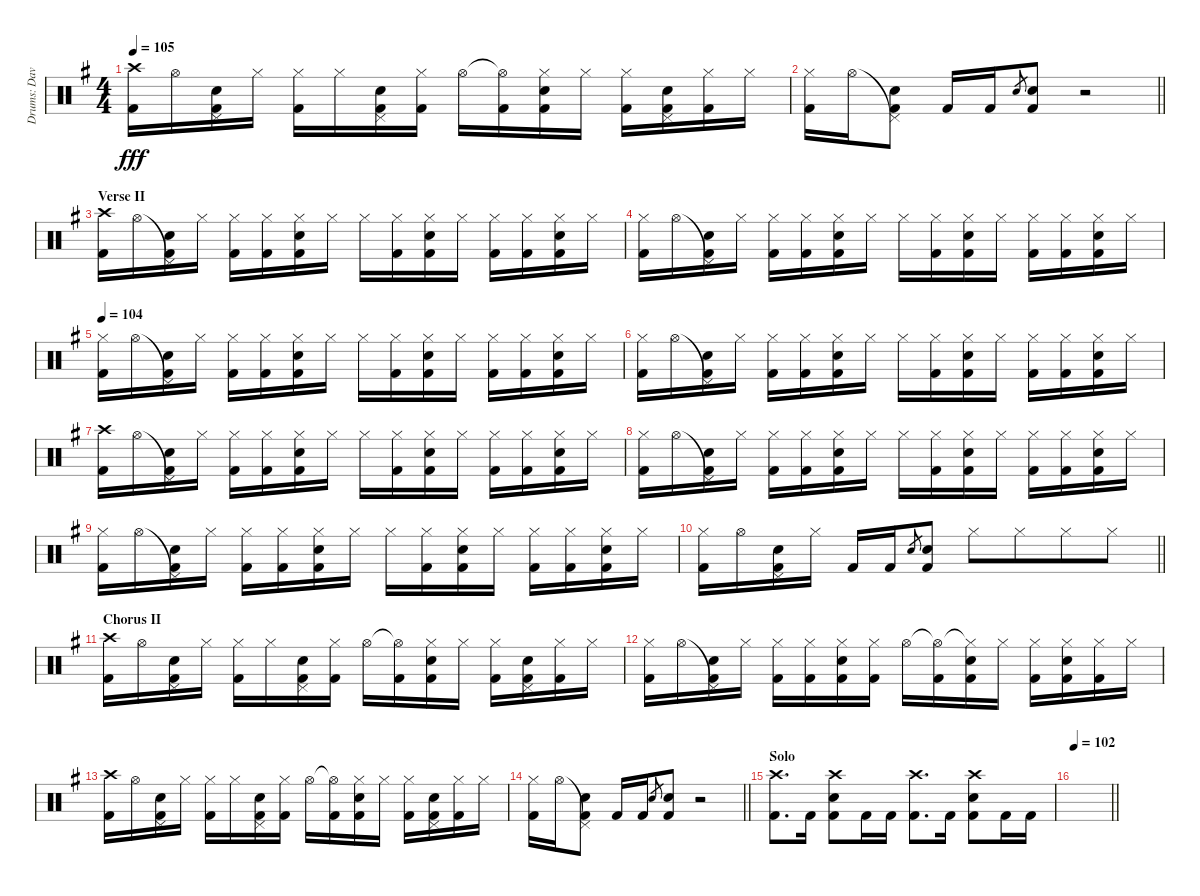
\track ("Drums: Dave" "Drums: Dav") {instrument percussion}
\staff {score}
\articulation defaults
\ts (4 4)
\tempo 105
\clef neutral
\ks g
("Crash high (hit)" "Kick (hit) 2").16{dy fff} "Hi-Hat (open)".16 ("Pedal Hi-Hat (hit)" "Electric Snare (hit)" "Kick (hit) 2").16 "Hi-Hat (closed)".16 ("Hi-Hat (closed)" "Kick (hit) 2").16 "Hi-Hat (closed)".16 ("Pedal Hi-Hat (hit)" "Electric Snare (hit)" "Kick (hit) 2").16 ("Hi-Hat (closed)" "Kick (hit) 2").16 "Hi-Hat (open)".16 ("Hi-Hat (open)"{t} "Kick (hit) 2").16 ("Hi-Hat (closed)" "Electric Snare (hit)" "Kick (hit) 2").16 "Hi-Hat (closed)".16 ("Hi-Hat (closed)" "Kick (hit) 2").16 ("Pedal Hi-Hat (hit)" "Electric Snare (hit)" "Kick (hit) 2").16 ("Hi-Hat (closed)" "Kick (hit) 2").16 "Hi-Hat (closed)".16 |
\barLineRight lightlight
("Hi-Hat (closed)" "Kick (hit) 2").16 "Hi-Hat (open)".16 ("Pedal Hi-Hat (hit)"{t} "Electric Snare (hit)" "Kick (hit) 2").8 "Kick (hit) 2".16 "Kick (hit) 2".16 "Snare (hit) 2".8{gr} ("Electric Snare (hit)" "Kick (hit) 2").8 r.2 |
\section ("" "Verse II")
("Crash high (hit)" "Kick (hit) 2").16 "Hi-Hat (open)".16 ("Pedal Hi-Hat (hit)"{t} "Electric Snare (hit)" "Kick (hit) 2").16 "Hi-Hat (closed)".16 ("Hi-Hat (closed)" "Kick (hit) 2").16 ("Hi-Hat (closed)" "Kick (hit) 2").16 ("Hi-Hat (closed)" "Electric Snare (hit)" "Kick (hit) 2").16 "Hi-Hat (closed)".16 "Hi-Hat (closed)".16 ("Hi-Hat (closed)" "Kick (hit) 2").16 ("Hi-Hat (closed)" "Electric Snare (hit)" "Kick (hit) 2").16 "Hi-Hat (closed)".16 ("Hi-Hat (closed)" "Kick (hit) 2").16 ("Hi-Hat (closed)" "Kick (hit) 2").16 ("Hi-Hat (closed)" "Electric Snare (hit)" "Kick (hit) 2").16 "Hi-Hat (closed)".16 |
("Hi-Hat (closed)" "Kick (hit) 2").16 "Hi-Hat (open)".16 ("Pedal Hi-Hat (hit)"{t} "Electric Snare (hit)" "Kick (hit) 2").16 "Hi-Hat (closed)".16 ("Hi-Hat (closed)" "Kick (hit) 2").16 ("Hi-Hat (closed)" "Kick (hit) 2").16 ("Hi-Hat (closed)" "Electric Snare (hit)" "Kick (hit) 2").16 "Hi-Hat (closed)".16 "Hi-Hat (closed)".16 ("Hi-Hat (closed)" "Kick (hit) 2").16 ("Hi-Hat (closed)" "Electric Snare (hit)" "Kick (hit) 2").16 "Hi-Hat (closed)".16 ("Hi-Hat (closed)" "Kick (hit) 2").16 ("Hi-Hat (closed)" "Kick (hit) 2").16 ("Hi-Hat (closed)" "Electric Snare (hit)" "Kick (hit) 2").16 "Hi-Hat (closed)".16 |
\tempo 104
("Hi-Hat (closed)" "Kick (hit) 2").16 "Hi-Hat (open)".16 ("Pedal Hi-Hat (hit)"{t} "Electric Snare (hit)" "Kick (hit) 2").16 "Hi-Hat (closed)".16 ("Hi-Hat (closed)" "Kick (hit) 2").16 ("Hi-Hat (closed)" "Kick (hit) 2").16 ("Hi-Hat (closed)" "Electric Snare (hit)" "Kick (hit) 2").16 "Hi-Hat (closed)".16 "Hi-Hat (closed)".16 ("Hi-Hat (closed)" "Kick (hit) 2").16 ("Hi-Hat (closed)" "Electric Snare (hit)" "Kick (hit) 2").16 "Hi-Hat (closed)".16 ("Hi-Hat (closed)" "Kick (hit) 2").16 ("Hi-Hat (closed)" "Kick (hit) 2").16 ("Hi-Hat (closed)" "Electric Snare (hit)" "Kick (hit) 2").16 "Hi-Hat (closed)".16 |
("Hi-Hat (closed)" "Kick (hit) 2").16 "Hi-Hat (open)".16 ("Pedal Hi-Hat (hit)"{t} "Electric Snare (hit)" "Kick (hit) 2").16 "Hi-Hat (closed)".16 ("Hi-Hat (closed)" "Kick (hit) 2").16 ("Hi-Hat (closed)" "Kick (hit) 2").16 ("Hi-Hat (closed)" "Electric Snare (hit)" "Kick (hit) 2").16 "Hi-Hat (closed)".16 "Hi-Hat (closed)".16 ("Hi-Hat (closed)" "Kick (hit) 2").16 ("Hi-Hat (closed)" "Electric Snare (hit)" "Kick (hit) 2").16 "Hi-Hat (closed)".16 ("Hi-Hat (closed)" "Kick (hit) 2").16 ("Hi-Hat (closed)" "Kick (hit) 2").16 ("Hi-Hat (closed)" "Electric Snare (hit)" "Kick (hit) 2").16 "Hi-Hat (closed)".16 |
("Crash high (hit)" "Kick (hit) 2").16 "Hi-Hat (open)".16 ("Pedal Hi-Hat (hit)"{t} "Electric Snare (hit)" "Kick (hit) 2").16 "Hi-Hat (closed)".16 ("Hi-Hat (closed)" "Kick (hit) 2").16 ("Hi-Hat (closed)" "Kick (hit) 2").16 ("Hi-Hat (closed)" "Electric Snare (hit)" "Kick (hit) 2").16 "Hi-Hat (closed)".16 "Hi-Hat (closed)".16 ("Hi-Hat (closed)" "Kick (hit) 2").16 ("Hi-Hat (closed)" "Electric Snare (hit)" "Kick (hit) 2").16 "Hi-Hat (closed)".16 ("Hi-Hat (closed)" "Kick (hit) 2").16 ("Hi-Hat (closed)" "Kick (hit) 2").16 ("Hi-Hat (closed)" "Electric Snare (hit)" "Kick (hit) 2").16 "Hi-Hat (closed)".16 |
("Hi-Hat (closed)" "Kick (hit) 2").16 "Hi-Hat (open)".16 ("Pedal Hi-Hat (hit)"{t} "Electric Snare (hit)" "Kick (hit) 2").16 "Hi-Hat (closed)".16 ("Hi-Hat (closed)" "Kick (hit) 2").16 ("Hi-Hat (closed)" "Kick (hit) 2").16 ("Hi-Hat (closed)" "Electric Snare (hit)" "Kick (hit) 2").16 "Hi-Hat (closed)".16 "Hi-Hat (closed)".16 ("Hi-Hat (closed)" "Kick (hit) 2").16 ("Hi-Hat (closed)" "Electric Snare (hit)" "Kick (hit) 2").16 "Hi-Hat (closed)".16 ("Hi-Hat (closed)" "Kick (hit) 2").16 ("Hi-Hat (closed)" "Kick (hit) 2").16 ("Hi-Hat (closed)" "Electric Snare (hit)" "Kick (hit) 2").16 "Hi-Hat (closed)".16 |
("Hi-Hat (closed)" "Kick (hit) 2").16 "Hi-Hat (open)".16 ("Pedal Hi-Hat (hit)"{t} "Electric Snare (hit)" "Kick (hit) 2").16 "Hi-Hat (closed)".16 ("Hi-Hat (closed)" "Kick (hit) 2").16 ("Hi-Hat (closed)" "Kick (hit) 2").16 ("Hi-Hat (closed)" "Electric Snare (hit)" "Kick (hit) 2").16 "Hi-Hat (closed)".16 "Hi-Hat (closed)".16 ("Hi-Hat (closed)" "Kick (hit) 2").16 ("Hi-Hat (closed)" "Electric Snare (hit)" "Kick (hit) 2").16 "Hi-Hat (closed)".16 ("Hi-Hat (closed)" "Kick (hit) 2").16 ("Hi-Hat (closed)" "Kick (hit) 2").16 ("Hi-Hat (closed)" "Electric Snare (hit)" "Kick (hit) 2").16 "Hi-Hat (closed)".16 |
\barLineRight lightlight
("Hi-Hat (closed)" "Kick (hit) 2").16 "Hi-Hat (open)".16 ("Pedal Hi-Hat (hit)" "Electric Snare (hit)" "Kick (hit) 2").16 "Hi-Hat (closed)".16 "Kick (hit) 2".16 "Kick (hit) 2".16 "Snare (hit) 2".8{gr} ("Electric Snare (hit)" "Kick (hit) 2").8 "Hi-Hat (closed)".8 "Hi-Hat (closed)".8{beam merge} "Hi-Hat (closed)".8 "Hi-Hat (closed)".8 |
\section ("" "Chorus II")
("Crash high (hit)" "Kick (hit) 2").16 "Hi-Hat (open)".16 ("Pedal Hi-Hat (hit)" "Electric Snare (hit)" "Kick (hit) 2").16 "Hi-Hat (closed)".16 ("Hi-Hat (closed)" "Kick (hit) 2").16 "Hi-Hat (closed)".16 ("Pedal Hi-Hat (hit)" "Electric Snare (hit)" "Kick (hit) 2").16 ("Hi-Hat (closed)" "Kick (hit) 2").16 "Hi-Hat (open)".16 ("Hi-Hat (open)"{t} "Kick (hit) 2").16 ("Hi-Hat (closed)" "Electric Snare (hit)" "Kick (hit) 2").16 "Hi-Hat (closed)".16 ("Hi-Hat (closed)" "Kick (hit) 2").16 ("Pedal Hi-Hat (hit)" "Electric Snare (hit)" "Kick (hit) 2").16 ("Hi-Hat (closed)" "Kick (hit) 2").16 "Hi-Hat (closed)".16 |
("Hi-Hat (closed)" "Kick (hit) 2").16 "Hi-Hat (open)".16 ("Pedal Hi-Hat (hit)"{t} "Electric Snare (hit)" "Kick (hit) 2").16 "Hi-Hat (closed)".16 ("Hi-Hat (closed)" "Kick (hit) 2").16 ("Hi-Hat (closed)" "Kick (hit) 2").16 ("Hi-Hat (closed)" "Electric Snare (hit)" "Kick (hit) 2").16 ("Hi-Hat (closed)" "Kick (hit) 2").16 "Hi-Hat (open)".16 ("Hi-Hat (open)"{t} "Kick (hit) 2").16 ("Hi-Hat (closed)"{t} "Electric Snare (hit)" "Kick (hit) 2").16 "Hi-Hat (closed)".16 ("Hi-Hat (closed)" "Kick (hit) 2").16 ("Hi-Hat (closed)" "Electric Snare (hit)" "Kick (hit) 2").16 ("Hi-Hat (closed)" "Kick (hit) 2").16 "Hi-Hat (closed)".16 |
("Crash high (hit)" "Kick (hit) 2").16 "Hi-Hat (open)".16 ("Pedal Hi-Hat (hit)" "Electric Snare (hit)" "Kick (hit) 2").16 "Hi-Hat (closed)".16 ("Hi-Hat (closed)" "Kick (hit) 2").16 "Hi-Hat (closed)".16 ("Pedal Hi-Hat (hit)" "Electric Snare (hit)" "Kick (hit) 2").16 ("Hi-Hat (closed)" "Kick (hit) 2").16 "Hi-Hat (open)".16 ("Hi-Hat (open)"{t} "Kick (hit) 2").16 ("Hi-Hat (closed)" "Electric Snare (hit)" "Kick (hit) 2").16 "Hi-Hat (closed)".16 ("Hi-Hat (closed)" "Kick (hit) 2").16 ("Pedal Hi-Hat (hit)" "Electric Snare (hit)" "Kick (hit) 2").16 ("Hi-Hat (closed)" "Kick (hit) 2").16 "Hi-Hat (closed)".16 |
\barLineRight lightlight
("Hi-Hat (closed)" "Kick (hit) 2").16 "Hi-Hat (open)".16 ("Pedal Hi-Hat (hit)"{t} "Electric Snare (hit)" "Kick (hit) 2").8 "Kick (hit) 2".16 "Kick (hit) 2".16 "Snare (hit) 2".8{gr} ("Electric Snare (hit)" "Kick (hit) 2").8 r.2 |
\section ("" "Solo")
("Crash high (hit)" "Kick (hit) 2").8{d} "Kick (hit) 2".16 ("Crash high (hit)" "Electric Snare (hit)" "Kick (hit) 2").8 "Kick (hit) 2".16 "Kick (hit) 2".16 ("Crash high (hit)" "Kick (hit) 2").8{d} "Kick (hit) 2".16 ("Crash high (hit)" "Electric Snare (hit)" "Kick (hit) 2").8 "Kick (hit) 2".16 "Kick (hit) 2".16 |
\tempo 102
\barLineRight lightlight
